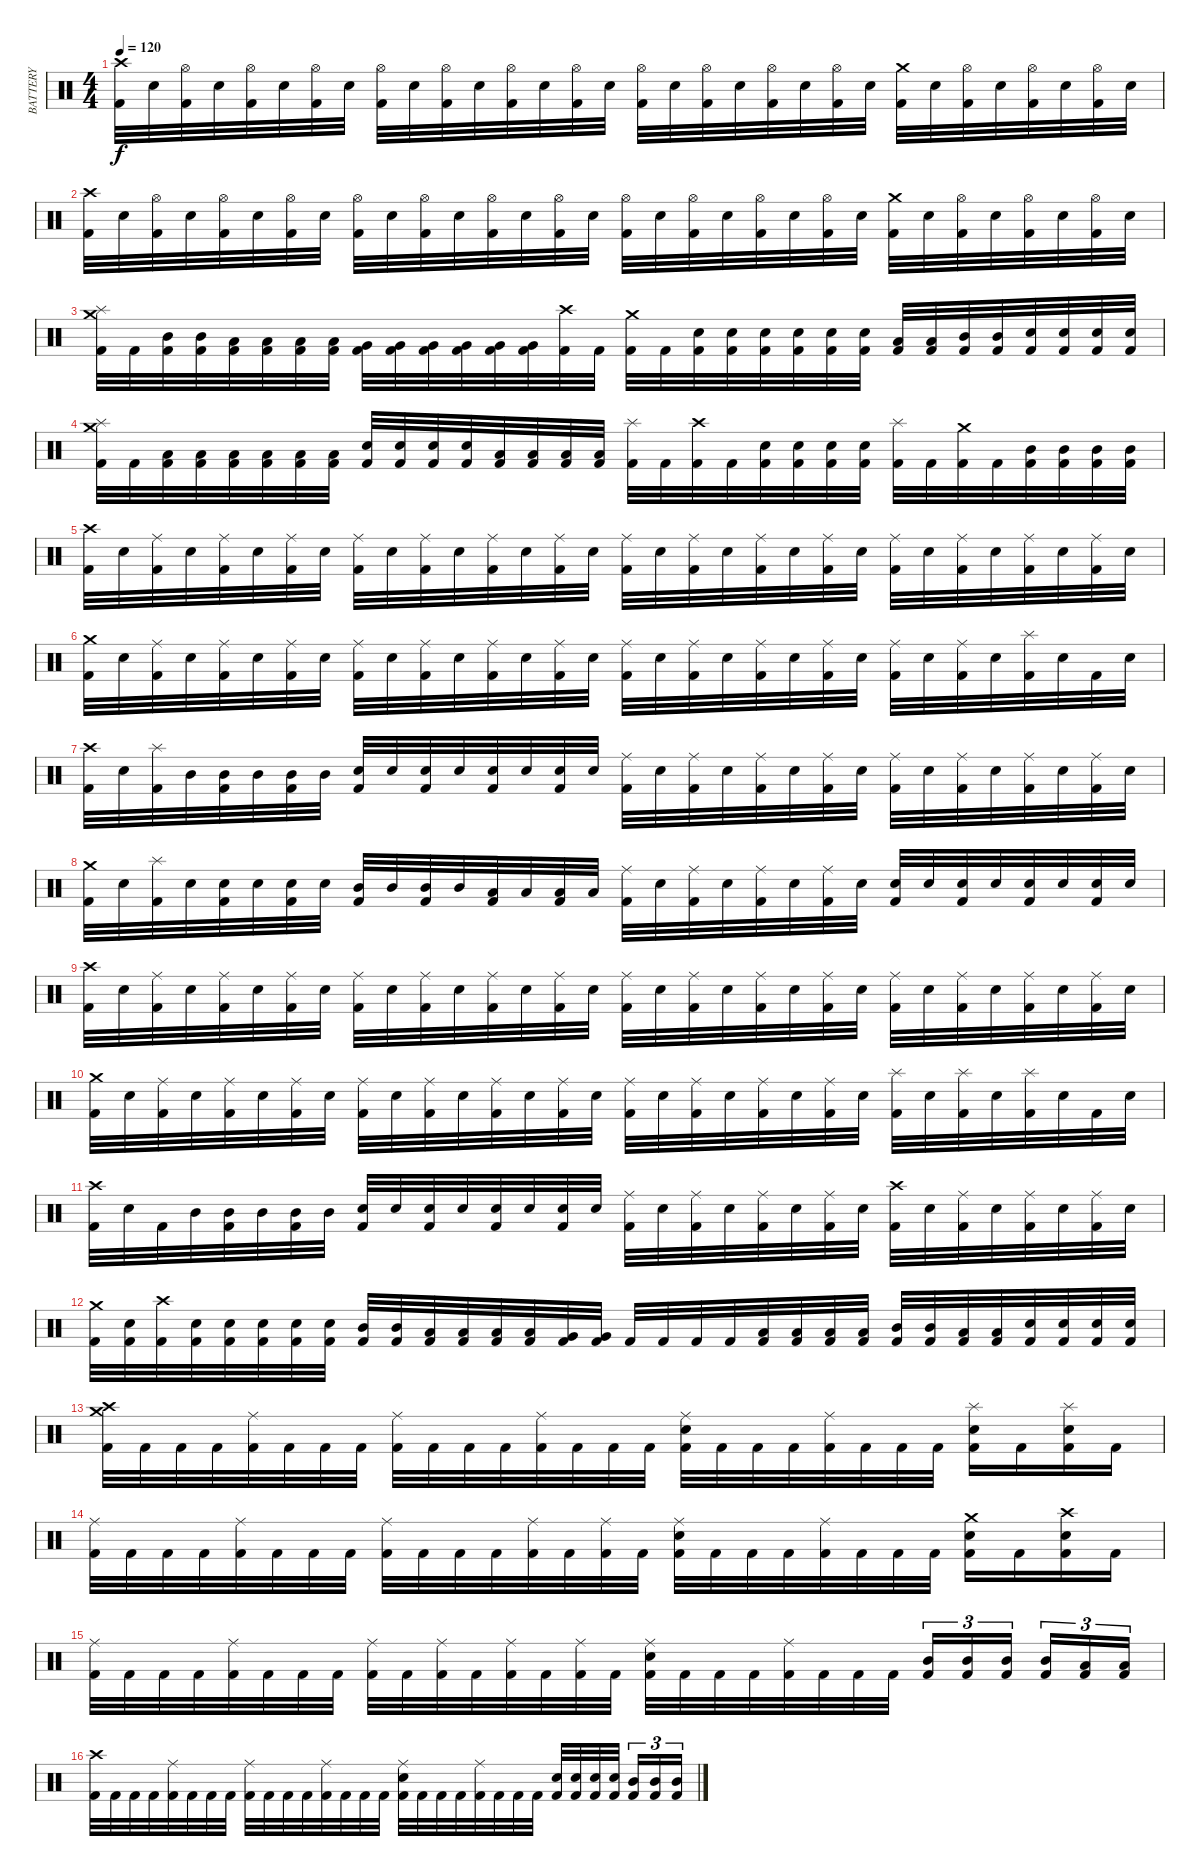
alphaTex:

\track ("BATTERY" "BATTERY") {instrument percussion}
\staff {score}
\articulation defaults
\ts (4 4)
\tempo 120
\clef neutral
\ks c
("Kick (hit) 2" "Crash high (hit)").32{dy f} "Snare (hit) 2".32 ("Kick (hit) 2" "Hi-Hat (open)").32 "Snare (hit) 2".32 ("Kick (hit) 2" "Hi-Hat (open)").32 "Snare (hit) 2".32 ("Kick (hit) 2" "Hi-Hat (open)").32 "Snare (hit) 2".32 ("Kick (hit) 2" "Hi-Hat (open)").32 "Snare (hit) 2".32 ("Kick (hit) 2" "Hi-Hat (open)").32 "Snare (hit) 2".32 ("Kick (hit) 2" "Hi-Hat (open)").32 "Snare (hit) 2".32 ("Kick (hit) 2" "Hi-Hat (open)").32 "Snare (hit) 2".32 ("Kick (hit) 2" "Hi-Hat (open)").32 "Snare (hit) 2".32 ("Kick (hit) 2" "Hi-Hat (open)").32 "Snare (hit) 2".32 ("Kick (hit) 2" "Hi-Hat (open)").32 "Snare (hit) 2".32 ("Kick (hit) 2" "Hi-Hat (open)").32 "Snare (hit) 2".32 ("Kick (hit) 2" "Crash medium (hit)").32 "Snare (hit) 2".32 ("Kick (hit) 2" "Hi-Hat (open)").32 "Snare (hit) 2".32 ("Kick (hit) 2" "Hi-Hat (open)").32 "Snare (hit) 2".32 ("Kick (hit) 2" "Hi-Hat (open)").32 "Snare (hit) 2".32 |
("Kick (hit) 2" "Crash high (hit)").32 "Snare (hit) 2".32 ("Kick (hit) 2" "Hi-Hat (open)").32 "Snare (hit) 2".32 ("Kick (hit) 2" "Hi-Hat (open)").32 "Snare (hit) 2".32 ("Kick (hit) 2" "Hi-Hat (open)").32 "Snare (hit) 2".32 ("Kick (hit) 2" "Hi-Hat (open)").32 "Snare (hit) 2".32 ("Kick (hit) 2" "Hi-Hat (open)").32 "Snare (hit) 2".32 ("Kick (hit) 2" "Hi-Hat (open)").32 "Snare (hit) 2".32 ("Kick (hit) 2" "Hi-Hat (open)").32 "Snare (hit) 2".32 ("Kick (hit) 2" "Hi-Hat (open)").32 "Snare (hit) 2".32 ("Kick (hit) 2" "Hi-Hat (open)").32 "Snare (hit) 2".32 ("Kick (hit) 2" "Hi-Hat (open)").32 "Snare (hit) 2".32 ("Kick (hit) 2" "Hi-Hat (open)").32 "Snare (hit) 2".32 ("Kick (hit) 2" "Crash medium (hit)").32 "Snare (hit) 2".32 ("Kick (hit) 2" "Hi-Hat (open)").32 "Snare (hit) 2".32 ("Kick (hit) 2" "Hi-Hat (open)").32 "Snare (hit) 2".32 ("Kick (hit) 2" "Hi-Hat (open)").32 "Snare (hit) 2".32 |
("Kick (hit) 2" "Splash (hit)" "Crash medium (hit)").32 "Kick (hit) 2".32 ("Kick (hit) 2" "Mid Tom (hit)").32 ("Kick (hit) 2" "Mid Tom (hit)").32 ("Kick (hit) 2" "Low Tom (hit)").32 ("Kick (hit) 2" "Low Tom (hit)").32 ("Kick (hit) 2" "Low Tom (hit)").32 ("Kick (hit) 2" "Low Tom (hit)").32 ("Kick (hit) 2" "Very Low Tom (hit)").32 ("Kick (hit) 2" "Very Low Tom (hit)").32 ("Kick (hit) 2" "Very Low Tom (hit)").32 ("Kick (hit) 2" "Very Low Tom (hit)").32 ("Kick (hit) 2" "Very Low Tom (hit)").32 ("Kick (hit) 2" "Very Low Tom (hit)").32 ("Kick (hit) 2" "Crash high (hit)").32 "Kick (hit) 2".32 ("Kick (hit) 2" "Crash medium (hit)").32 "Kick (hit) 2".32 ("Kick (hit) 2" "Snare (hit) 2").32 ("Kick (hit) 2" "Snare (hit) 2").32 ("Kick (hit) 2" "Snare (hit) 2").32 ("Kick (hit) 2" "Snare (hit) 2").32 ("Kick (hit) 2" "Snare (hit) 2").32 ("Kick (hit) 2" "Snare (hit) 2").32 ("Kick (hit) 2" "Low Tom (hit)").32 ("Kick (hit) 2" "Low Tom (hit)").32 ("Kick (hit) 2" "Mid Tom (hit)").32 ("Kick (hit) 2" "Mid Tom (hit)").32 ("Kick (hit) 2" "Snare (hit) 2").32 ("Kick (hit) 2" "Snare (hit) 2").32 ("Kick (hit) 2" "Snare (hit) 2").32 ("Kick (hit) 2" "Snare (hit) 2").32 |
("Kick (hit) 2" "Splash (hit)" "Crash medium (hit)").32 "Kick (hit) 2".32 ("Kick (hit) 2" "Low Tom (hit)").32 ("Kick (hit) 2" "Low Tom (hit)").32 ("Kick (hit) 2" "Low Tom (hit)").32 ("Kick (hit) 2" "Low Tom (hit)").32 ("Kick (hit) 2" "Low Tom (hit)").32 ("Kick (hit) 2" "Low Tom (hit)").32 ("Kick (hit) 2" "Snare (hit) 2").32 ("Kick (hit) 2" "Snare (hit) 2").32 ("Kick (hit) 2" "Snare (hit) 2").32 ("Kick (hit) 2" "Snare (hit) 2").32 ("Kick (hit) 2" "Low Tom (hit)").32 ("Kick (hit) 2" "Low Tom (hit)").32 ("Kick (hit) 2" "Low Tom (hit)").32 ("Kick (hit) 2" "Low Tom (hit)").32 ("Kick (hit) 2" "Splash (hit)").32 "Kick (hit) 2".32 ("Kick (hit) 2" "Crash high (hit)").32 "Kick (hit) 2".32 ("Kick (hit) 2" "Snare (hit) 2").32 ("Kick (hit) 2" "Snare (hit) 2").32 ("Kick (hit) 2" "Snare (hit) 2").32 ("Kick (hit) 2" "Snare (hit) 2").32 ("Kick (hit) 2" "Splash (hit)").32 "Kick (hit) 2".32 ("Kick (hit) 2" "Crash medium (hit)").32 "Kick (hit) 2".32 ("Kick (hit) 2" "Mid Tom (hit)").32 ("Kick (hit) 2" "Mid Tom (hit)").32 ("Kick (hit) 2" "Mid Tom (hit)").32 ("Kick (hit) 2" "Mid Tom (hit)").32 |
("Kick (hit) 2" "Crash high (hit)").32 "Snare (hit) 2".32 ("Kick (hit) 2" "Ride (middle)").32 "Snare (hit) 2".32 ("Kick (hit) 2" "Ride (middle)").32 "Snare (hit) 2".32 ("Kick (hit) 2" "Ride (middle)").32 "Snare (hit) 2".32 ("Kick (hit) 2" "Ride (middle)").32 "Snare (hit) 2".32 ("Kick (hit) 2" "Ride (middle)").32 "Snare (hit) 2".32 ("Kick (hit) 2" "Ride (middle)").32 "Snare (hit) 2".32 ("Kick (hit) 2" "Ride (middle)").32 "Snare (hit) 2".32 ("Kick (hit) 2" "Ride (middle)").32 "Snare (hit) 2".32 ("Kick (hit) 2" "Ride (middle)").32 "Snare (hit) 2".32 ("Kick (hit) 2" "Ride (middle)").32 "Snare (hit) 2".32 ("Kick (hit) 2" "Ride (middle)").32 "Snare (hit) 2".32 ("Kick (hit) 2" "Ride (middle)").32 "Snare (hit) 2".32 ("Kick (hit) 2" "Ride (middle)").32 "Snare (hit) 2".32 ("Kick (hit) 2" "Ride (middle)").32 "Snare (hit) 2".32 ("Kick (hit) 2" "Ride (middle)").32 "Snare (hit) 2".32 |
("Kick (hit) 2" "Crash medium (hit)").32 "Snare (hit) 2".32 ("Kick (hit) 2" "Ride (middle)").32 "Snare (hit) 2".32 ("Kick (hit) 2" "Ride (middle)").32 "Snare (hit) 2".32 ("Kick (hit) 2" "Ride (middle)").32 "Snare (hit) 2".32 ("Kick (hit) 2" "Ride (middle)").32 "Snare (hit) 2".32 ("Kick (hit) 2" "Ride (middle)").32 "Snare (hit) 2".32 ("Kick (hit) 2" "Ride (middle)").32 "Snare (hit) 2".32 ("Kick (hit) 2" "Ride (middle)").32 "Snare (hit) 2".32 ("Kick (hit) 2" "Ride (middle)").32 "Snare (hit) 2".32 ("Kick (hit) 2" "Ride (middle)").32 "Snare (hit) 2".32 ("Kick (hit) 2" "Ride (middle)").32 "Snare (hit) 2".32 ("Kick (hit) 2" "Ride (middle)").32 "Snare (hit) 2".32 ("Kick (hit) 2" "Ride (middle)").32 "Snare (hit) 2".32 ("Kick (hit) 2" "Ride (middle)").32 "Snare (hit) 2".32 ("Kick (hit) 2" "Splash (hit)").32 "Snare (hit) 2".32 "Kick (hit) 2".32 "Snare (hit) 2".32 |
("Kick (hit) 2" "Crash high (hit)").32 "Snare (hit) 2".32 ("Kick (hit) 2" "Splash (hit)").32 "Mid Tom (hit)".32 ("Kick (hit) 2" "Mid Tom (hit)").32 "Mid Tom (hit)".32 ("Kick (hit) 2" "Mid Tom (hit)").32 "Mid Tom (hit)".32 ("Kick (hit) 2" "Snare (hit) 2").32 "Snare (hit) 2".32 ("Kick (hit) 2" "Snare (hit) 2").32 "Snare (hit) 2".32 ("Kick (hit) 2" "Snare (hit) 2").32 "Snare (hit) 2".32 ("Kick (hit) 2" "Snare (hit) 2").32 "Snare (hit) 2".32 ("Kick (hit) 2" "Ride (middle)").32 "Snare (hit) 2".32 ("Kick (hit) 2" "Ride (middle)").32 "Snare (hit) 2".32 ("Kick (hit) 2" "Ride (middle)").32 "Snare (hit) 2".32 ("Kick (hit) 2" "Ride (middle)").32 "Snare (hit) 2".32 ("Kick (hit) 2" "Ride (middle)").32 "Snare (hit) 2".32 ("Kick (hit) 2" "Ride (middle)").32 "Snare (hit) 2".32 ("Kick (hit) 2" "Ride (middle)").32 "Snare (hit) 2".32 ("Kick (hit) 2" "Ride (middle)").32 "Snare (hit) 2".32 |
("Kick (hit) 2" "Crash medium (hit)").32 "Snare (hit) 2".32 ("Kick (hit) 2" "Splash (hit)").32 "Snare (hit) 2".32 ("Kick (hit) 2" "Snare (hit) 2").32 "Snare (hit) 2".32 ("Kick (hit) 2" "Snare (hit) 2").32 "Snare (hit) 2".32 ("Kick (hit) 2" "Mid Tom (hit)").32 "Mid Tom (hit)".32 ("Kick (hit) 2" "Mid Tom (hit)").32 "Mid Tom (hit)".32 ("Kick (hit) 2" "Low Tom (hit)").32 "Low Tom (hit)".32 ("Kick (hit) 2" "Low Tom (hit)").32 "Low Tom (hit)".32 ("Kick (hit) 2" "Ride (middle)").32 "Snare (hit) 2".32 ("Kick (hit) 2" "Ride (middle)").32 "Snare (hit) 2".32 ("Kick (hit) 2" "Ride (middle)").32 "Snare (hit) 2".32 ("Kick (hit) 2" "Ride (middle)").32 "Snare (hit) 2".32 ("Kick (hit) 2" "Snare (hit) 2").32 "Snare (hit) 2".32 ("Kick (hit) 2" "Snare (hit) 2").32 "Snare (hit) 2".32 ("Kick (hit) 2" "Snare (hit) 2").32 "Snare (hit) 2".32 ("Kick (hit) 2" "Snare (hit) 2").32 "Snare (hit) 2".32 |
("Kick (hit) 2" "Crash high (hit)").32 "Snare (hit) 2".32 ("Kick (hit) 2" "Ride (middle)").32 "Snare (hit) 2".32 ("Kick (hit) 2" "Ride (middle)").32 "Snare (hit) 2".32 ("Kick (hit) 2" "Ride (middle)").32 "Snare (hit) 2".32 ("Kick (hit) 2" "Ride (middle)").32 "Snare (hit) 2".32 ("Kick (hit) 2" "Ride (middle)").32 "Snare (hit) 2".32 ("Kick (hit) 2" "Ride (middle)").32 "Snare (hit) 2".32 ("Kick (hit) 2" "Ride (middle)").32 "Snare (hit) 2".32 ("Kick (hit) 2" "Ride (middle)").32 "Snare (hit) 2".32 ("Kick (hit) 2" "Ride (middle)").32 "Snare (hit) 2".32 ("Kick (hit) 2" "Ride (middle)").32 "Snare (hit) 2".32 ("Kick (hit) 2" "Ride (middle)").32 "Snare (hit) 2".32 ("Kick (hit) 2" "Ride (middle)").32 "Snare (hit) 2".32 ("Kick (hit) 2" "Ride (middle)").32 "Snare (hit) 2".32 ("Kick (hit) 2" "Ride (middle)").32 "Snare (hit) 2".32 ("Kick (hit) 2" "Ride (middle)").32 "Snare (hit) 2".32 |
("Kick (hit) 2" "Crash medium (hit)").32 "Snare (hit) 2".32 ("Kick (hit) 2" "Ride (middle)").32 "Snare (hit) 2".32 ("Kick (hit) 2" "Ride (middle)").32 "Snare (hit) 2".32 ("Kick (hit) 2" "Ride (middle)").32 "Snare (hit) 2".32 ("Kick (hit) 2" "Ride (middle)").32 "Snare (hit) 2".32 ("Kick (hit) 2" "Ride (middle)").32 "Snare (hit) 2".32 ("Kick (hit) 2" "Ride (middle)").32 "Snare (hit) 2".32 ("Kick (hit) 2" "Ride (middle)").32 "Snare (hit) 2".32 ("Kick (hit) 2" "Ride (middle)").32 "Snare (hit) 2".32 ("Kick (hit) 2" "Ride (middle)").32 "Snare (hit) 2".32 ("Kick (hit) 2" "Ride (middle)").32 "Snare (hit) 2".32 ("Kick (hit) 2" "Ride (middle)").32 "Snare (hit) 2".32 ("Kick (hit) 2" "Splash (hit)").32 "Snare (hit) 2".32 ("Kick (hit) 2" "Splash (hit)").32 "Snare (hit) 2".32 ("Kick (hit) 2" "Splash (hit)").32 "Snare (hit) 2".32 "Kick (hit) 2".32 "Snare (hit) 2".32 |
("Kick (hit) 2" "Crash high (hit)").32 "Snare (hit) 2".32 "Kick (hit) 2".32 "Mid Tom (hit)".32 ("Kick (hit) 2" "Mid Tom (hit)").32 "Mid Tom (hit)".32 ("Kick (hit) 2" "Mid Tom (hit)").32 "Mid Tom (hit)".32 ("Kick (hit) 2" "Snare (hit) 2").32 "Snare (hit) 2".32 ("Kick (hit) 2" "Snare (hit) 2").32 "Snare (hit) 2".32 ("Kick (hit) 2" "Snare (hit) 2").32 "Snare (hit) 2".32 ("Kick (hit) 2" "Snare (hit) 2").32 "Snare (hit) 2".32 ("Kick (hit) 2" "Ride (middle)").32 "Snare (hit) 2".32 ("Kick (hit) 2" "Ride (middle)").32 "Snare (hit) 2".32 ("Kick (hit) 2" "Ride (middle)").32 "Snare (hit) 2".32 ("Kick (hit) 2" "Ride (middle)").32 "Snare (hit) 2".32 ("Kick (hit) 2" "Crash high (hit)").32 "Snare (hit) 2".32 ("Kick (hit) 2" "Ride (middle)").32 "Snare (hit) 2".32 ("Kick (hit) 2" "Ride (middle)").32 "Snare (hit) 2".32 ("Kick (hit) 2" "Ride (middle)").32 "Snare (hit) 2".32 |
("Kick (hit) 2" "Crash medium (hit)").32 ("Kick (hit) 2" "Snare (hit) 2").32 ("Kick (hit) 2" "Crash high (hit)").32 ("Kick (hit) 2" "Snare (hit) 2").32 ("Kick (hit) 2" "Snare (hit) 2").32 ("Kick (hit) 2" "Snare (hit) 2").32 ("Kick (hit) 2" "Snare (hit) 2").32 ("Kick (hit) 2" "Snare (hit) 2").32 ("Kick (hit) 2" "Mid Tom (hit)").32 ("Kick (hit) 2" "Mid Tom (hit)").32 ("Kick (hit) 2" "Low Tom (hit)").32 ("Kick (hit) 2" "Low Tom (hit)").32 ("Kick (hit) 2" "Low Tom (hit)").32 ("Kick (hit) 2" "Low Tom (hit)").32 ("Kick (hit) 2" "Very Low Tom (hit)").32 ("Kick (hit) 2" "Very Low Tom (hit)").32 "Kick (hit) 2".32 "Kick (hit) 2".32 "Kick (hit) 2".32 "Kick (hit) 2".32 ("Kick (hit) 2" "Low Tom (hit)").32 ("Kick (hit) 2" "Low Tom (hit)").32 ("Kick (hit) 2" "Low Tom (hit)").32 ("Kick (hit) 2" "Low Tom (hit)").32 ("Kick (hit) 2" "Mid Tom (hit)").32 ("Kick (hit) 2" "Mid Tom (hit)").32 ("Kick (hit) 2" "Low Tom (hit)").32 ("Kick (hit) 2" "Low Tom (hit)").32 ("Kick (hit) 2" "Snare (hit) 2").32 ("Kick (hit) 2" "Snare (hit) 2").32 ("Kick (hit) 2" "Snare (hit) 2").32 ("Kick (hit) 2" "Snare (hit) 2").32 |
("Kick (hit) 2" "Crash medium (hit)" "Crash high (hit)").32 "Kick (hit) 2".32 "Kick (hit) 2".32 "Kick (hit) 2".32 ("Kick (hit) 2" "Ride (middle)").32 "Kick (hit) 2".32 "Kick (hit) 2".32 "Kick (hit) 2".32 ("Kick (hit) 2" "Ride (middle)").32 "Kick (hit) 2".32 "Kick (hit) 2".32 "Kick (hit) 2".32 ("Kick (hit) 2" "Ride (middle)").32 "Kick (hit) 2".32 "Kick (hit) 2".32 "Kick (hit) 2".32 ("Kick (hit) 2" "Snare (hit) 2" "Ride (middle)").32 "Kick (hit) 2".32 "Kick (hit) 2".32 "Kick (hit) 2".32 ("Kick (hit) 2" "Ride (middle)").32 "Kick (hit) 2".32 "Kick (hit) 2".32 "Kick (hit) 2".32 ("Kick (hit) 2" "Snare (hit) 2" "Splash (hit)").16 "Kick (hit) 2".16 ("Kick (hit) 2" "Snare (hit) 2" "Splash (hit)").16 "Kick (hit) 2".16 |
("Kick (hit) 2" "Ride (middle)").32 "Kick (hit) 2".32 "Kick (hit) 2".32 "Kick (hit) 2".32 ("Kick (hit) 2" "Ride (middle)").32 "Kick (hit) 2".32 "Kick (hit) 2".32 "Kick (hit) 2".32 ("Kick (hit) 2" "Ride (middle)").32 "Kick (hit) 2".32 "Kick (hit) 2".32 "Kick (hit) 2".32 ("Kick (hit) 2" "Ride (middle)").32 "Kick (hit) 2".32 ("Kick (hit) 2" "Ride (middle)").32 "Kick (hit) 2".32 ("Kick (hit) 2" "Snare (hit) 2" "Ride (middle)").32 "Kick (hit) 2".32 "Kick (hit) 2".32 "Kick (hit) 2".32 ("Kick (hit) 2" "Ride (middle)").32 "Kick (hit) 2".32 "Kick (hit) 2".32 "Kick (hit) 2".32 ("Kick (hit) 2" "Snare (hit) 2" "Crash medium (hit)").16 "Kick (hit) 2".16 ("Kick (hit) 2" "Snare (hit) 2" "Crash high (hit)").16 "Kick (hit) 2".16 |
("Kick (hit) 2" "Ride (middle)").32 "Kick (hit) 2".32 "Kick (hit) 2".32 "Kick (hit) 2".32 ("Kick (hit) 2" "Ride (middle)").32 "Kick (hit) 2".32 "Kick (hit) 2".32 "Kick (hit) 2".32 ("Kick (hit) 2" "Ride (middle)").32 "Kick (hit) 2".32 ("Kick (hit) 2" "Ride (middle)").32 "Kick (hit) 2".32 ("Kick (hit) 2" "Ride (middle)").32 "Kick (hit) 2".32 ("Kick (hit) 2" "Ride (middle)").32 "Kick (hit) 2".32 ("Kick (hit) 2" "Snare (hit) 2" "Ride (middle)").32 "Kick (hit) 2".32 "Kick (hit) 2".32 "Kick (hit) 2".32 ("Kick (hit) 2" "Ride (middle)").32 "Kick (hit) 2".32 "Kick (hit) 2".32 "Kick (hit) 2".32 ("Kick (hit) 2" "Mid Tom (hit)").16{tu (3 2)} ("Kick (hit) 2" "Mid Tom (hit)").16{tu (3 2)} ("Kick (hit) 2" "Mid Tom (hit)").16{tu (3 2)} ("Kick (hit) 2" "Mid Tom (hit)").16{tu (3 2)} ("Kick (hit) 2" "Low Tom (hit)").16{tu (3 2)} ("Kick (hit) 2" "Low Tom (hit)").16{tu (3 2)} |
("Kick (hit) 2" "Crash high (hit)").32 "Kick (hit) 2".32 "Kick (hit) 2".32 "Kick (hit) 2".32 ("Kick (hit) 2" "Ride (middle)").32 "Kick (hit) 2".32 "Kick (hit) 2".32 "Kick (hit) 2".32 ("Kick (hit) 2" "Ride (middle)").32 "Kick (hit) 2".32 "Kick (hit) 2".32 "Kick (hit) 2".32 ("Kick (hit) 2" "Ride (middle)").32 "Kick (hit) 2".32 "Kick (hit) 2".32 "Kick (hit) 2".32 ("Kick (hit) 2" "Snare (hit) 2" "Ride (middle)").32 "Kick (hit) 2".32 "Kick (hit) 2".32 "Kick (hit) 2".32 ("Kick (hit) 2" "Ride (middle)").32 "Kick (hit) 2".32 "Kick (hit) 2".32 "Kick (hit) 2".32 ("Kick (hit) 2" "Snare (hit) 2").32 ("Kick (hit) 2" "Snare (hit) 2").32 ("Kick (hit) 2" "Snare (hit) 2").32 ("Kick (hit) 2" "Snare (hit) 2").32 ("Kick (hit) 2" "Mid Tom (hit)").16{tu (3 2)} ("Kick (hit) 2" "Mid Tom (hit)").16{tu (3 2)} ("Kick (hit) 2" "Mid Tom (hit)").16{tu (3 2)}
